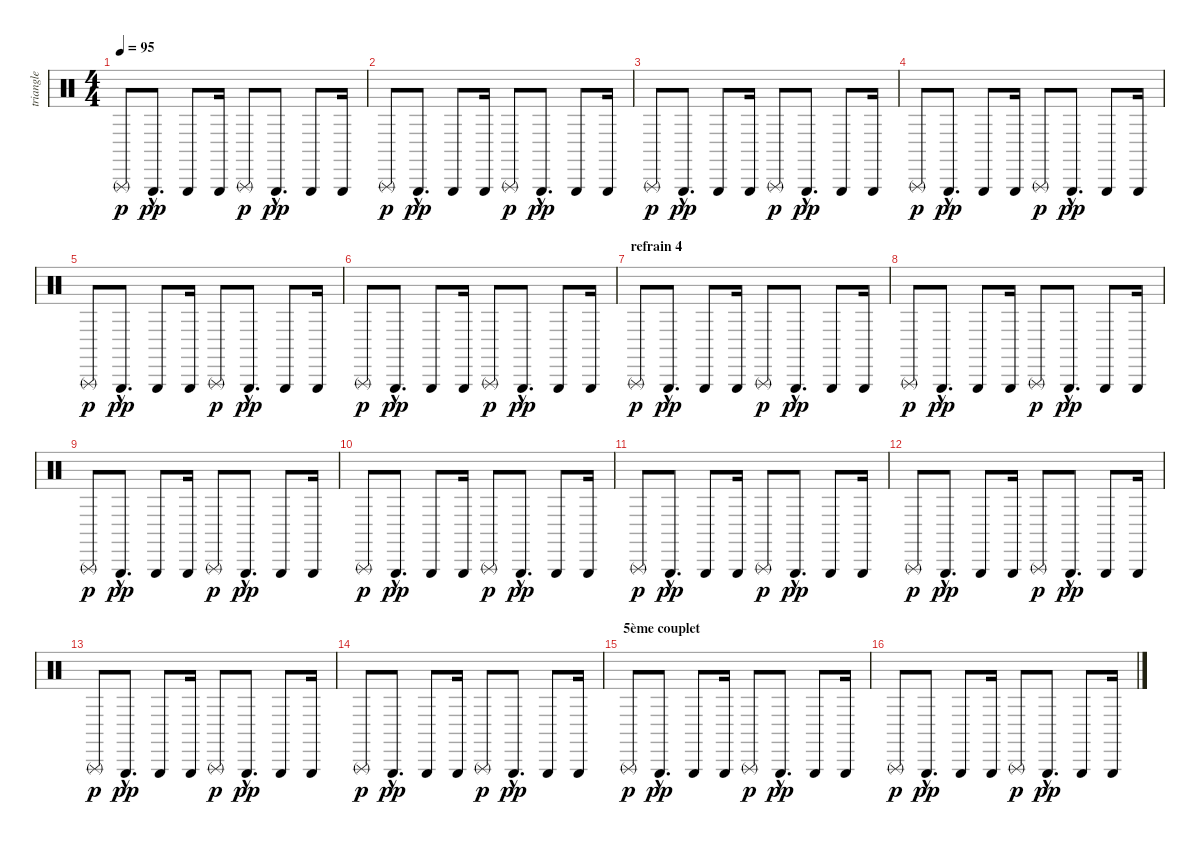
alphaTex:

\track ("triangle" "triangle") {instrument percussion}
\staff {score}
\articulation defaults
\ts (4 4)
\tempo 95
\clef neutral
\ks c "Triangle (rnute)".8{dy p} "Triangle (hit)"{hac}.8{d dy pp} "Triangle (hit)".8 "Triangle (hit)".16 "Triangle (rnute)".8{dy p} "Triangle (hit)"{hac}.8{d dy pp} "Triangle (hit)".8 "Triangle (hit)".16
|
"Triangle (rnute)".8{dy p} "Triangle (hit)"{hac}.8{d dy pp} "Triangle (hit)".8 "Triangle (hit)".16 "Triangle (rnute)".8{dy p} "Triangle (hit)"{hac}.8{d dy pp} "Triangle (hit)".8 "Triangle (hit)".16 |
"Triangle (rnute)".8{dy p} "Triangle (hit)"{hac}.8{d dy pp} "Triangle (hit)".8 "Triangle (hit)".16 "Triangle (rnute)".8{dy p} "Triangle (hit)"{hac}.8{d dy pp} "Triangle (hit)".8 "Triangle (hit)".16 |
"Triangle (rnute)".8{dy p} "Triangle (hit)"{hac}.8{d dy pp} "Triangle (hit)".8 "Triangle (hit)".16 "Triangle (rnute)".8{dy p} "Triangle (hit)"{hac}.8{d dy pp} "Triangle (hit)".8 "Triangle (hit)".16 |
"Triangle (rnute)".8{dy p} "Triangle (hit)"{hac}.8{d dy pp} "Triangle (hit)".8 "Triangle (hit)".16 "Triangle (rnute)".8{dy p} "Triangle (hit)"{hac}.8{d dy pp} "Triangle (hit)".8 "Triangle (hit)".16 |
"Triangle (rnute)".8{dy p} "Triangle (hit)"{hac}.8{d dy pp} "Triangle (hit)".8 "Triangle (hit)".16 "Triangle (rnute)".8{dy p} "Triangle (hit)"{hac}.8{d dy pp} "Triangle (hit)".8 "Triangle (hit)".16 |
\section ("" "refrain 4")
"Triangle (rnute)".8{dy p} "Triangle (hit)"{hac}.8{d dy pp} "Triangle (hit)".8 "Triangle (hit)".16 "Triangle (rnute)".8{dy p} "Triangle (hit)"{hac}.8{d dy pp} "Triangle (hit)".8 "Triangle (hit)".16 |
"Triangle (rnute)".8{dy p} "Triangle (hit)"{hac}.8{d dy pp} "Triangle (hit)".8 "Triangle (hit)".16 "Triangle (rnute)".8{dy p} "Triangle (hit)"{hac}.8{d dy pp} "Triangle (hit)".8 "Triangle (hit)".16 |
"Triangle (rnute)".8{dy p} "Triangle (hit)"{hac}.8{d dy pp} "Triangle (hit)".8 "Triangle (hit)".16 "Triangle (rnute)".8{dy p} "Triangle (hit)"{hac}.8{d dy pp} "Triangle (hit)".8 "Triangle (hit)".16 |
"Triangle (rnute)".8{dy p} "Triangle (hit)"{hac}.8{d dy pp} "Triangle (hit)".8 "Triangle (hit)".16 "Triangle (rnute)".8{dy p} "Triangle (hit)"{hac}.8{d dy pp} "Triangle (hit)".8 "Triangle (hit)".16 |
"Triangle (rnute)".8{dy p} "Triangle (hit)"{hac}.8{d dy pp} "Triangle (hit)".8 "Triangle (hit)".16 "Triangle (rnute)".8{dy p} "Triangle (hit)"{hac}.8{d dy pp} "Triangle (hit)".8 "Triangle (hit)".16 |
"Triangle (rnute)".8{dy p} "Triangle (hit)"{hac}.8{d dy pp} "Triangle (hit)".8 "Triangle (hit)".16 "Triangle (rnute)".8{dy p} "Triangle (hit)"{hac}.8{d dy pp} "Triangle (hit)".8 "Triangle (hit)".16 |
"Triangle (rnute)".8{dy p} "Triangle (hit)"{hac}.8{d dy pp} "Triangle (hit)".8 "Triangle (hit)".16 "Triangle (rnute)".8{dy p} "Triangle (hit)"{hac}.8{d dy pp} "Triangle (hit)".8 "Triangle (hit)".16 |
"Triangle (rnute)".8{dy p} "Triangle (hit)"{hac}.8{d dy pp} "Triangle (hit)".8 "Triangle (hit)".16 "Triangle (rnute)".8{dy p} "Triangle (hit)"{hac}.8{d dy pp} "Triangle (hit)".8 "Triangle (hit)".16 |
\section ("" "5ème couplet")
"Triangle (rnute)".8{dy p} "Triangle (hit)"{hac}.8{d dy pp} "Triangle (hit)".8 "Triangle (hit)".16 "Triangle (rnute)".8{dy p} "Triangle (hit)"{hac}.8{d dy pp} "Triangle (hit)".8 "Triangle (hit)".16 |
"Triangle (rnute)".8{dy p} "Triangle (hit)"{hac}.8{d dy pp} "Triangle (hit)".8 "Triangle (hit)".16 "Triangle (rnute)".8{dy p} "Triangle (hit)"{hac}.8{d dy pp} "Triangle (hit)".8 "Triangle (hit)".16
